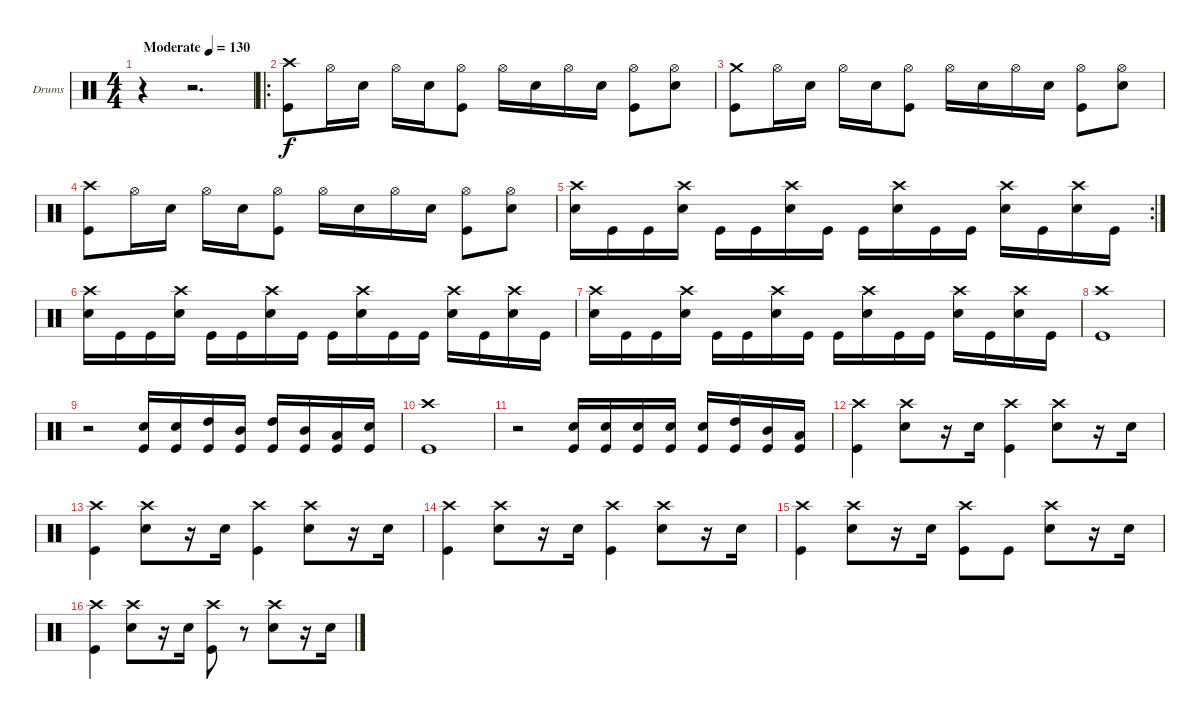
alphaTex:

\bracketExtendMode groupsimilarinstruments
\firstSystemTrackNameOrientation horizontal
\otherSystemsTrackNameOrientation horizontal
\track ("Drumkit" "Drums") {instrument percussion}
\staff {score}
\articulation defaults
\ts (4 4)
\beaming (8 2 2 2 2)
\tempo (130 "Moderate")
\clef neutral
\ks c
r.4{dy f} r.2{d} |
\ro
("Kick (hit)" "Crash high (hit)").8 "Hi-Hat (open)".16 "Snare (hit) 2".16 "Hi-Hat (open)".16 "Snare (hit) 2".16 ("Kick (hit)" "Hi-Hat (open)").8 "Hi-Hat (open)".16 "Snare (hit) 2".16 "Hi-Hat (open)".16 "Snare (hit) 2".16 ("Kick (hit)" "Hi-Hat (open)").8 ("Snare (hit) 2" "Hi-Hat (open)").8 |
("Kick (hit)" "Crash medium (hit)").8 "Hi-Hat (open)".16 "Snare (hit) 2".16 "Hi-Hat (open)".16 "Snare (hit) 2".16 ("Kick (hit)" "Hi-Hat (open)").8 "Hi-Hat (open)".16 "Snare (hit) 2".16 "Hi-Hat (open)".16 "Snare (hit) 2".16 ("Kick (hit)" "Hi-Hat (open)").8 ("Snare (hit) 2" "Hi-Hat (open)").8 |
("Kick (hit)" "Crash high (hit)").8 "Hi-Hat (open)".16 "Snare (hit) 2".16 "Hi-Hat (open)".16 "Snare (hit) 2".16 ("Kick (hit)" "Hi-Hat (open)").8 "Hi-Hat (open)".16 "Snare (hit) 2".16 "Hi-Hat (open)".16 "Snare (hit) 2".16 ("Kick (hit)" "Hi-Hat (open)").8 ("Snare (hit) 2" "Hi-Hat (open)").8 |
\rc 2
("Crash high (hit)" "Snare (hit) 2").16 "Kick (hit)".16 "Kick (hit)".16 ("Crash high (hit)" "Snare (hit) 2").16 "Kick (hit)".16 "Kick (hit)".16 ("Crash high (hit)" "Snare (hit) 2").16 "Kick (hit)".16 "Kick (hit)".16 ("Crash high (hit)" "Snare (hit) 2").16 "Kick (hit)".16 "Kick (hit)".16 ("Crash high (hit)" "Snare (hit) 2").16 "Kick (hit)".16 ("Crash high (hit)" "Snare (hit) 2").16 "Kick (hit)".16 |
("Crash high (hit)" "Snare (hit) 2").16 "Kick (hit)".16 "Kick (hit)".16 ("Crash high (hit)" "Snare (hit) 2").16 "Kick (hit)".16 "Kick (hit)".16 ("Crash high (hit)" "Snare (hit) 2").16 "Kick (hit)".16 "Kick (hit)".16 ("Crash high (hit)" "Snare (hit) 2").16 "Kick (hit)".16 "Kick (hit)".16 ("Crash high (hit)" "Snare (hit) 2").16 "Kick (hit)".16 ("Crash high (hit)" "Snare (hit) 2").16 "Kick (hit)".16 |
("Crash high (hit)" "Snare (hit) 2").16 "Kick (hit)".16 "Kick (hit)".16 ("Crash high (hit)" "Snare (hit) 2").16 "Kick (hit)".16 "Kick (hit)".16 ("Crash high (hit)" "Snare (hit) 2").16 "Kick (hit)".16 "Kick (hit)".16 ("Crash high (hit)" "Snare (hit) 2").16 "Kick (hit)".16 "Kick (hit)".16 ("Crash high (hit)" "Snare (hit) 2").16 "Kick (hit)".16 ("Crash high (hit)" "Snare (hit) 2").16 "Kick (hit)".16 |
("Kick (hit)" "Crash high (hit)").1 |
r.2 ("Snare (hit) 2" "Kick (hit)").16 ("Snare (hit) 2" "Kick (hit)").16 ("High Tom (hit)" "Kick (hit)").16 ("Mid Tom (hit)" "Kick (hit)").16 ("High Tom (hit)" "Kick (hit)").16 ("Mid Tom (hit)" "Kick (hit)").16 ("Low Tom (hit)" "Kick (hit)").16 ("Snare (hit) 2" "Kick (hit)").16 |
("Kick (hit)" "Crash high (hit)").1 |
r.2 ("Snare (hit) 2" "Kick (hit)").16 ("Snare (hit) 2" "Kick (hit)").16 ("Snare (hit) 2" "Kick (hit)").16 ("Snare (hit) 2" "Kick (hit)").16 ("Snare (hit) 2" "Kick (hit)").16 ("High Tom (hit)" "Kick (hit)").16 ("Mid Tom (hit)" "Kick (hit)").16 ("Low Tom (hit)" "Kick (hit)").16 |
("Kick (hit)" "Crash high (hit)").4 ("Snare (hit) 2" "Crash high (hit)").8 r.16 "Snare (hit) 2".16 ("Kick (hit)" "Crash high (hit)").4 ("Snare (hit) 2" "Crash high (hit)").8 r.16 "Snare (hit) 2".16 |
("Kick (hit)" "Crash high (hit)").4 ("Snare (hit) 2" "Crash high (hit)").8 r.16 "Snare (hit) 2".16 ("Kick (hit)" "Crash high (hit)").4 ("Snare (hit) 2" "Crash high (hit)").8 r.16 "Snare (hit) 2".16 |
("Kick (hit)" "Crash high (hit)").4 ("Snare (hit) 2" "Crash high (hit)").8 r.16 "Snare (hit) 2".16 ("Kick (hit)" "Crash high (hit)").4 ("Snare (hit) 2" "Crash high (hit)").8 r.16 "Snare (hit) 2".16 |
("Kick (hit)" "Crash high (hit)").4 ("Snare (hit) 2" "Crash high (hit)").8 r.16 "Snare (hit) 2".16 ("Kick (hit)" "Crash high (hit)").8 "Kick (hit)".8 ("Snare (hit) 2" "Crash high (hit)").8 r.16 "Snare (hit) 2".16 |
("Kick (hit)" "Crash high (hit)").4 ("Snare (hit) 2" "Crash high (hit)").8 r.16 "Snare (hit) 2".16 ("Kick (hit)" "Crash high (hit)").8 r.8 ("Snare (hit) 2" "Crash high (hit)").8 r.16 "Snare (hit) 2".16
